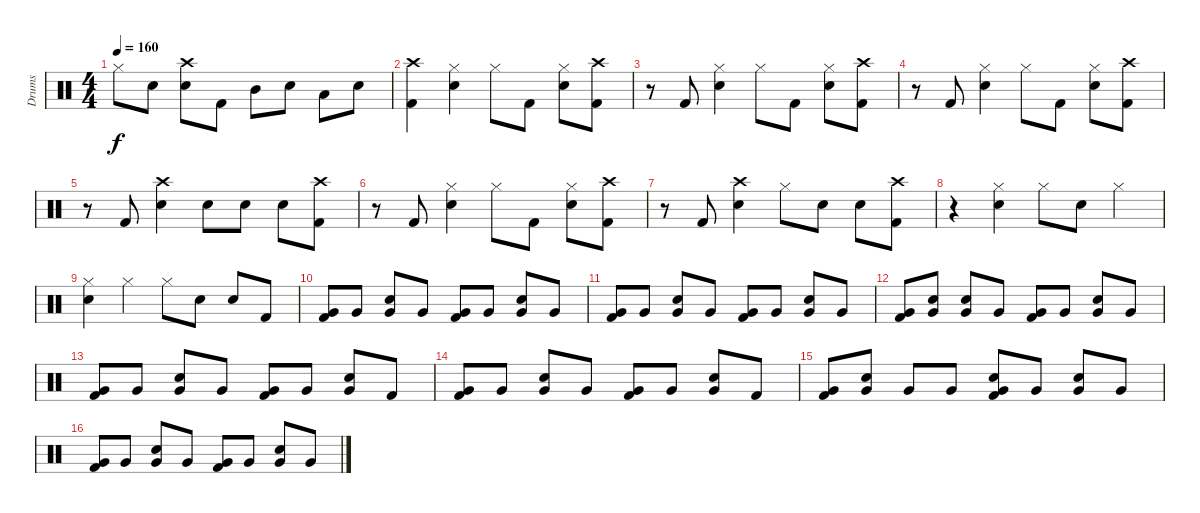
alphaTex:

\track ("Drums" "Drums") {instrument percussion}
\staff {score}
\articulation defaults
\ts (4 4)
\tempo 160
\clef neutral
\ks c "Hi-Hat (closed)".8{dy f} "Electric Snare (hit)".8
("Crash high (hit)" "Electric Snare (hit)").8 "Kick (hit) 2".8 "Mid Tom (hit)".8 "Electric Snare (hit)".8 "Low Tom (hit)".8 "Electric Snare (hit)".8 |
("Crash high (hit)" "Kick (hit) 2").4 ("Hi-Hat (closed)" "Electric Snare (hit)").4 "Hi-Hat (closed)".8 "Kick (hit) 2".8 ("Hi-Hat (closed)" "Electric Snare (hit)").8 ("Crash high (hit)" "Kick (hit) 2").8 |
r.8 "Kick (hit) 2".8 ("Hi-Hat (closed)" "Electric Snare (hit)").4 "Hi-Hat (closed)".8 "Kick (hit) 2".8 ("Hi-Hat (closed)" "Electric Snare (hit)").8 ("Crash high (hit)" "Kick (hit) 2").8 |
r.8 "Kick (hit) 2".8 ("Hi-Hat (closed)" "Electric Snare (hit)").4 "Hi-Hat (closed)".8 "Kick (hit) 2".8 ("Hi-Hat (closed)" "Electric Snare (hit)").8 ("Crash high (hit)" "Kick (hit) 2").8 |
r.8 "Kick (hit) 2".8 ("Crash high (hit)" "Electric Snare (hit)").4 "Electric Snare (hit)".8 "Electric Snare (hit)".8 "Electric Snare (hit)".8 ("Crash high (hit)" "Kick (hit) 2").8 |
r.8 "Kick (hit) 2".8 ("Hi-Hat (closed)" "Electric Snare (hit)").4 "Hi-Hat (closed)".8 "Kick (hit) 2".8 ("Hi-Hat (closed)" "Electric Snare (hit)").8 ("Crash high (hit)" "Kick (hit) 2").8 |
r.8 "Kick (hit) 2".8 ("Crash high (hit)" "Electric Snare (hit)").4 "Hi-Hat (closed)".8 "Electric Snare (hit)".8 "Electric Snare (hit)".8 ("Crash high (hit)" "Kick (hit) 2").8 |
r.4 ("Hi-Hat (closed)" "Electric Snare (hit)").4 "Hi-Hat (closed)".8 "Electric Snare (hit)".8 "Hi-Hat (closed)".4 |
("Hi-Hat (closed)" "Electric Snare (hit)").4 "Hi-Hat (closed)".4 "Hi-Hat (closed)".8 "Electric Snare (hit)".8 "Electric Snare (hit)".8 "Kick (hit) 2".8 |
("Very Low Tom (hit)" "Kick (hit) 2").8 "Very Low Tom (hit)".8 ("Electric Snare (hit)" "Very Low Tom (hit)").8 "Very Low Tom (hit)".8 ("Very Low Tom (hit)" "Kick (hit) 2").8 "Very Low Tom (hit)".8 ("Electric Snare (hit)" "Very Low Tom (hit)").8 "Very Low Tom (hit)".8 |
("Very Low Tom (hit)" "Kick (hit) 2").8 "Very Low Tom (hit)".8 ("Electric Snare (hit)" "Very Low Tom (hit)").8 "Very Low Tom (hit)".8 ("Very Low Tom (hit)" "Kick (hit) 2").8 "Very Low Tom (hit)".8 ("Electric Snare (hit)" "Very Low Tom (hit)").8 "Very Low Tom (hit)".8 |
("Very Low Tom (hit)" "Kick (hit) 2").8 ("Electric Snare (hit)" "Very Low Tom (hit)").8 ("Electric Snare (hit)" "Very Low Tom (hit)").8 "Very Low Tom (hit)".8 ("Very Low Tom (hit)" "Kick (hit) 2").8 "Very Low Tom (hit)".8 ("Electric Snare (hit)" "Very Low Tom (hit)").8 "Very Low Tom (hit)".8 |
("Very Low Tom (hit)" "Kick (hit) 2").8 "Very Low Tom (hit)".8 ("Electric Snare (hit)" "Very Low Tom (hit)").8 "Very Low Tom (hit)".8 ("Very Low Tom (hit)" "Kick (hit) 2").8 "Very Low Tom (hit)".8 ("Electric Snare (hit)" "Very Low Tom (hit)").8 "Kick (hit) 2".8 |
("Very Low Tom (hit)" "Kick (hit) 2").8 "Very Low Tom (hit)".8 ("Electric Snare (hit)" "Very Low Tom (hit)").8 "Very Low Tom (hit)".8 ("Very Low Tom (hit)" "Kick (hit) 2").8 "Very Low Tom (hit)".8 ("Electric Snare (hit)" "Very Low Tom (hit)").8 "Kick (hit) 2".8 |
("Very Low Tom (hit)" "Kick (hit) 2").8 ("Electric Snare (hit)" "Very Low Tom (hit)").8 "Very Low Tom (hit)".8 "Very Low Tom (hit)".8 ("Electric Snare (hit)" "Very Low Tom (hit)" "Kick (hit) 2").8 "Very Low Tom (hit)".8 ("Electric Snare (hit)" "Very Low Tom (hit)").8 "Very Low Tom (hit)".8 |
("Very Low Tom (hit)" "Kick (hit) 2").8 "Very Low Tom (hit)".8 ("Electric Snare (hit)" "Very Low Tom (hit)").8 "Very Low Tom (hit)".8 ("Very Low Tom (hit)" "Kick (hit) 2").8 "Very Low Tom (hit)".8 ("Electric Snare (hit)" "Very Low Tom (hit)").8 "Very Low Tom (hit)".8
